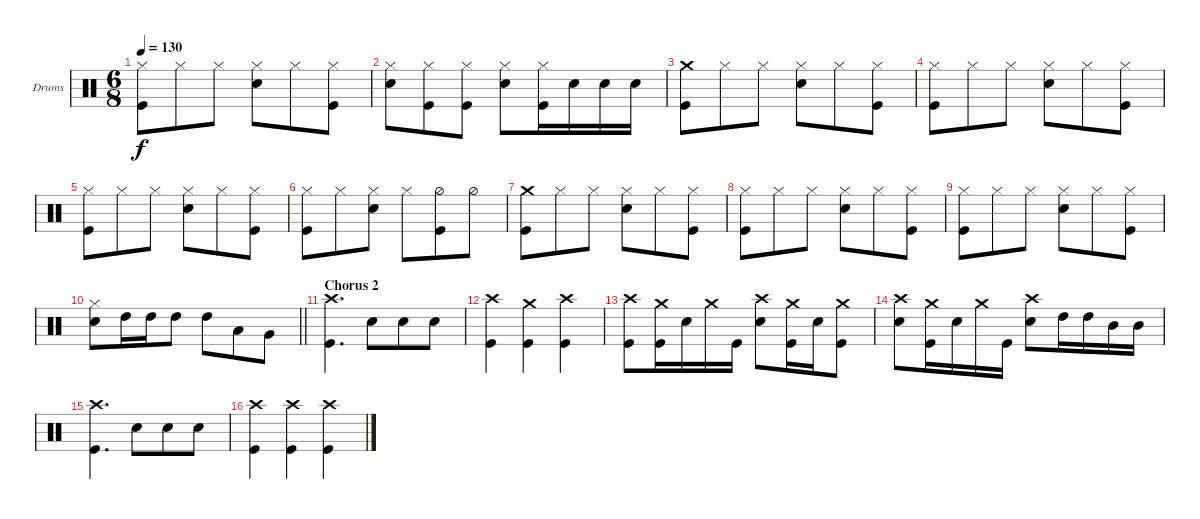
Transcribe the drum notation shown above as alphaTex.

\bracketExtendMode groupsimilarinstruments
\firstSystemTrackNameOrientation horizontal
\otherSystemsTrackNameOrientation horizontal
\track ("drums (Anton Zulganov)" "Drums") {instrument percussion}
\staff {score}
\articulation defaults
\ts (6 8)
\tempo 130
\clef neutral
\ks aminor
("Kick (hit)" "Hi-Hat (closed)").8{dy f} "Hi-Hat (closed)".8 "Hi-Hat (closed)".8 ("Snare (hit) 2" "Hi-Hat (closed)").8 "Hi-Hat (closed)".8 ("Kick (hit)" "Hi-Hat (closed)").8 |
("Hi-Hat (closed)" "Snare (hit) 2").8 ("Kick (hit)" "Hi-Hat (closed)").8 ("Kick (hit)" "Hi-Hat (closed)").8 ("Snare (hit) 2" "Hi-Hat (closed)").8 ("Kick (hit)" "Hi-Hat (closed)").16 "Snare (hit) 2".16 "Snare (hit) 2".16 "Snare (hit) 2".16 |
("Kick (hit)" "Crash medium (hit)").8 "Hi-Hat (closed)".8 "Hi-Hat (closed)".8 ("Snare (hit) 2" "Hi-Hat (closed)").8 "Hi-Hat (closed)".8 ("Kick (hit)" "Hi-Hat (closed)").8 |
("Kick (hit)" "Hi-Hat (closed)").8 "Hi-Hat (closed)".8 "Hi-Hat (closed)".8 ("Snare (hit) 2" "Hi-Hat (closed)").8 "Hi-Hat (closed)".8 ("Kick (hit)" "Hi-Hat (closed)").8 |
("Kick (hit)" "Hi-Hat (closed)").8 "Hi-Hat (closed)".8 "Hi-Hat (closed)".8 ("Snare (hit) 2" "Hi-Hat (closed)").8 "Hi-Hat (closed)".8 ("Kick (hit)" "Hi-Hat (closed)").8 |
("Kick (hit)" "Hi-Hat (closed)").8 "Hi-Hat (closed)".8 ("Snare (hit) 2" "Hi-Hat (closed)").8 "Hi-Hat (closed)".8 ("Kick (hit)" "Hi-Hat (half)").8 "Hi-Hat (half)".8 |
("Kick (hit)" "Crash medium (hit)").8 "Hi-Hat (closed)".8 "Hi-Hat (closed)".8 ("Snare (hit) 2" "Hi-Hat (closed)").8 "Hi-Hat (closed)".8 ("Kick (hit)" "Hi-Hat (closed)").8 |
("Kick (hit)" "Hi-Hat (closed)").8 "Hi-Hat (closed)".8 "Hi-Hat (closed)".8 ("Snare (hit) 2" "Hi-Hat (closed)").8 "Hi-Hat (closed)".8 ("Kick (hit)" "Hi-Hat (closed)").8 |
("Kick (hit)" "Hi-Hat (closed)").8 "Hi-Hat (closed)".8 "Hi-Hat (closed)".8 ("Snare (hit) 2" "Hi-Hat (closed)").8 "Hi-Hat (closed)".8 ("Kick (hit)" "Hi-Hat (closed)").8 |
\barLineRight lightlight
("Snare (hit) 2" "Hi-Hat (closed)").8 "High Tom (hit)".16 "High Tom (hit)".16 "High Tom (hit)".8 "High Tom (hit)".8 "Low Tom (hit)".8 "Very Low Tom (hit)".8 |
\section ("" "Chorus 2")
("Crash high (hit)" "Kick (hit)").4{d} "Snare (hit) 2".8 "Snare (hit) 2".8 "Snare (hit) 2".8 |
("Crash high (hit)" "Kick (hit)").4 ("Kick (hit)" "Crash medium (hit)").4 ("Crash high (hit)" "Kick (hit)").4 |
("Kick (hit)" "Crash high (hit)").8 ("Crash medium (hit)" "Kick (hit)").16 "Snare (hit) 2".16 "Crash medium (hit)".16 "Kick (hit)".16 ("Crash high (hit)" "Snare (hit) 2").8 ("Kick (hit)" "Crash medium (hit)").16 "Snare (hit) 2".16 ("Kick (hit)" "Crash medium (hit)").8 |
("Crash high (hit)" "Snare (hit) 2").8 ("Crash medium (hit)" "Kick (hit)").16 "Snare (hit) 2".16 "Crash medium (hit)".16 "Kick (hit)".16 ("Crash high (hit)" "Snare (hit) 2").8 "High Tom (hit)".16 "High Tom (hit)".16 "Mid Tom (hit)".16 "Mid Tom (hit)".16 |
("Crash high (hit)" "Kick (hit)").4{d} "Snare (hit) 2".8 "Snare (hit) 2".8 "Snare (hit) 2".8 |
("Crash high (hit)" "Kick (hit)").4 ("Crash high (hit)" "Kick (hit)").4 ("Crash high (hit)" "Kick (hit)").4
